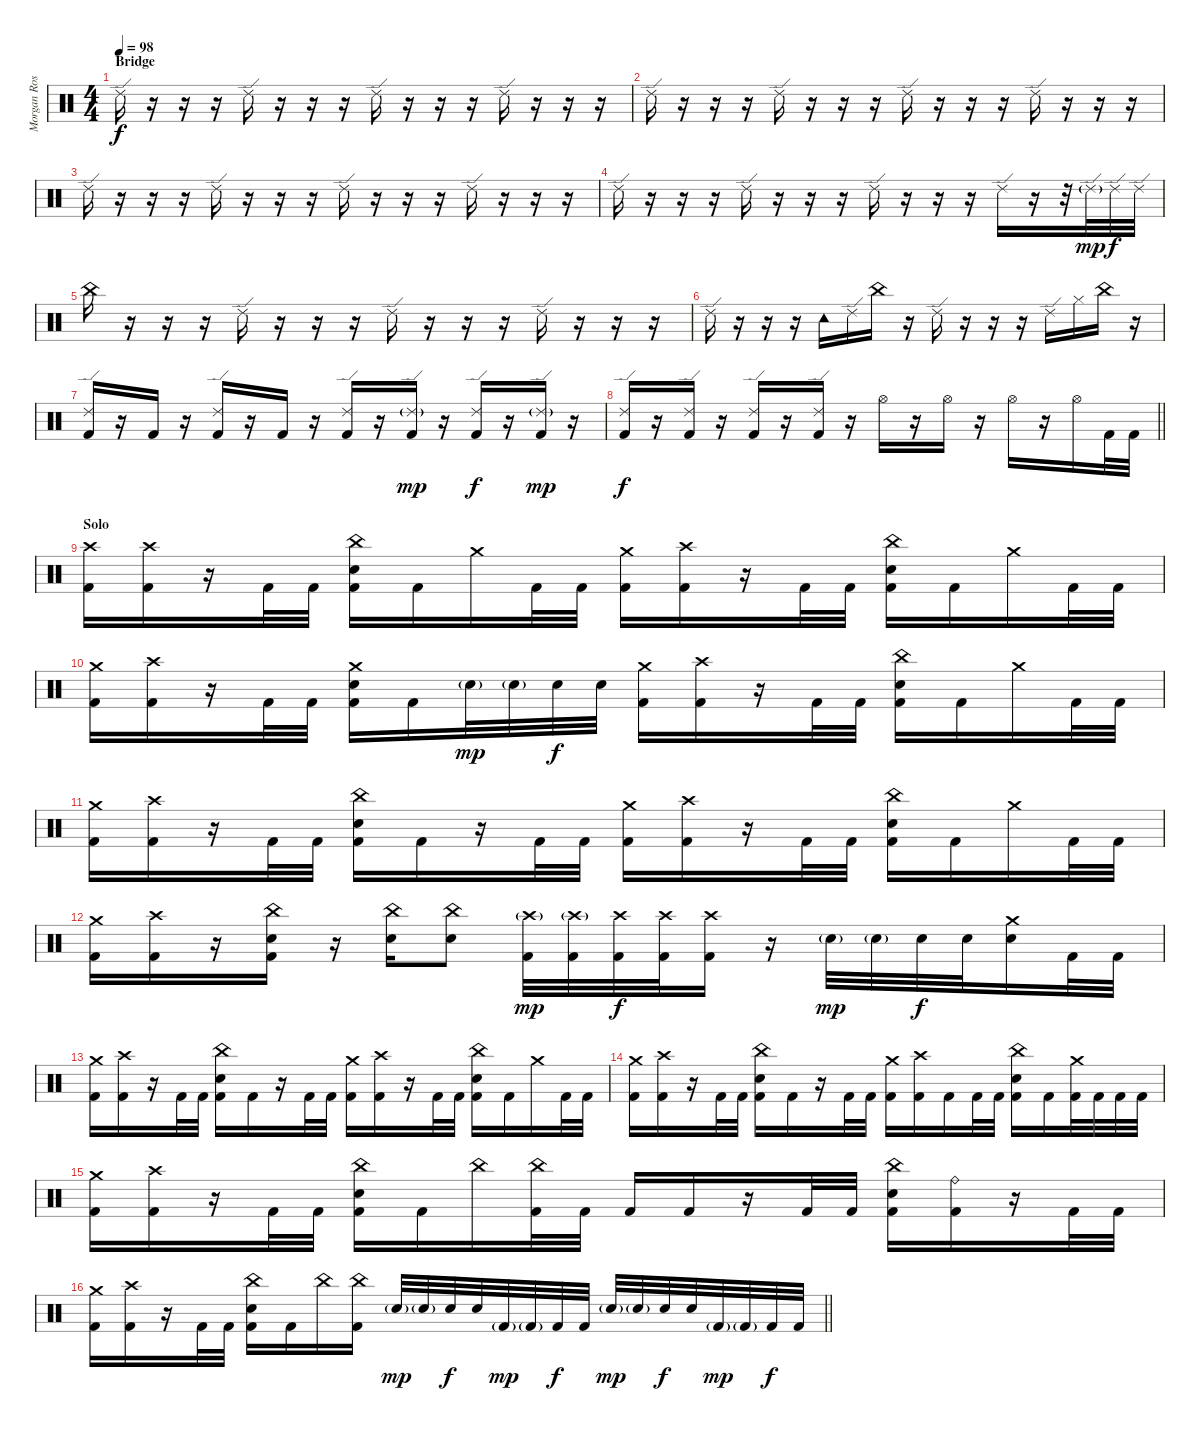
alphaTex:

\track ("Morgan Rose" "Morgan Ros") {instrument percussion}
\staff {score}
\articulation defaults
\ts (4 4)
\section ("" "Bridge")
\tempo 98
\clef neutral
\ks c "Ride (edge) 2".16{dy f}
r.16 r.16 r.16 "Ride (edge) 2".16 r.16 r.16 r.16 "Ride (edge) 2".16 r.16 r.16 r.16 "Ride (edge) 2".16 r.16 r.16 r.16 |
"Ride (edge) 2".16 r.16 r.16 r.16 "Ride (edge) 2".16 r.16 r.16 r.16 "Ride (edge) 2".16 r.16 r.16 r.16 "Ride (edge) 2".16 r.16 r.16 r.16 |
"Ride (edge) 2".16 r.16 r.16 r.16 "Ride (edge) 2".16 r.16 r.16 r.16 "Ride (edge) 2".16 r.16 r.16 r.16 "Ride (edge) 2".16 r.16 r.16 r.16 |
"Ride (edge) 2".16 r.16 r.16 r.16 "Ride (edge) 2".16 r.16 r.16 r.16 "Ride (edge) 2".16 r.16 r.16 r.16 "Ride (edge) 2".16 r.16 r.32 "Ride (edge) 2"{g}.32{dy mp} "Ride (edge) 2".32{dy f} "Ride (edge) 2".32 |
"China (hit)".16 r.16 r.16 r.16 "Ride (edge) 2".16 r.16 r.16 r.16 "Ride (edge) 2".16 r.16 r.16 r.16 "Ride (edge) 2".16 r.16 r.16 r.16 |
"Ride (edge) 2".16 r.16 r.16 r.16 "Tambourine (hit)".16 "Ride (edge) 2".16 "China (hit)".16 r.16 "Ride (edge) 2".16 r.16 r.16 r.16 "Ride (edge) 2".16 "Hi-Hat (closed)".16 "China (hit)".16 r.16 |
("Ride (edge) 2" "Kick (hit) 2").16 r.16 "Kick (hit) 2".16 r.16 ("Ride (edge) 2" "Kick (hit) 2").16 r.16 "Kick (hit) 2".16 r.16 ("Ride (edge) 2" "Kick (hit) 2").16 r.16 ("Ride (edge) 2"{g} "Kick (hit) 2").16{dy mp} r.16 ("Ride (edge) 2" "Kick (hit) 2").16{dy f} r.16 ("Ride (edge) 2"{g} "Kick (hit) 2").16{dy mp} r.16 |
\barLineRight lightlight
("Ride (edge) 2" "Kick (hit) 2").16{dy f} r.16 ("Ride (edge) 2" "Kick (hit) 2").16 r.16 ("Ride (edge) 2" "Kick (hit) 2").16 r.16 ("Ride (edge) 2" "Kick (hit) 2").16 r.16 "Hi-Hat (open)".16 r.16 "Hi-Hat (open)".16 r.16 "Hi-Hat (open)".16 r.16 "Hi-Hat (open)".16 "Kick (hit) 2".32 "Kick (hit) 2".32 |
\section ("" "Solo")
("Crash high (hit)" "Kick (hit) 2").16 ("Crash high (hit)" "Kick (hit) 2").16 r.16 "Kick (hit) 2".32 "Kick (hit) 2".32 ("China (hit)" "Snare (hit) 2" "Kick (hit) 2").16 "Kick (hit) 2".16 "Crash medium (hit)".16 "Kick (hit) 2".32 "Kick (hit) 2".32 ("Crash medium (hit)" "Kick (hit) 2").16 ("Crash high (hit)" "Kick (hit) 2").16 r.16 "Kick (hit) 2".32 "Kick (hit) 2".32 ("China (hit)" "Snare (hit) 2" "Kick (hit) 2").16 "Kick (hit) 2".16 "Crash medium (hit)".16 "Kick (hit) 2".32 "Kick (hit) 2".32 |
("Crash medium (hit)" "Kick (hit) 2").16 ("Crash high (hit)" "Kick (hit) 2").16 r.16 "Kick (hit) 2".32 "Kick (hit) 2".32 ("Crash medium (hit)" "Snare (hit) 2" "Kick (hit) 2").16 "Kick (hit) 2".16 "Snare (hit) 2"{g}.32{dy mp} "Snare (hit) 2"{g}.32 "Snare (hit) 2".32{dy f} "Snare (hit) 2".32 ("Crash medium (hit)" "Kick (hit) 2").16 ("Crash high (hit)" "Kick (hit) 2").16 r.16 "Kick (hit) 2".32 "Kick (hit) 2".32 ("China (hit)" "Snare (hit) 2" "Kick (hit) 2").16 "Kick (hit) 2".16 "Crash medium (hit)".16 "Kick (hit) 2".32 "Kick (hit) 2".32 |
("Crash medium (hit)" "Kick (hit) 2").16 ("Crash high (hit)" "Kick (hit) 2").16 r.16 "Kick (hit) 2".32 "Kick (hit) 2".32 ("China (hit)" "Snare (hit) 2" "Kick (hit) 2").16 "Kick (hit) 2".16 r.16 "Kick (hit) 2".32 "Kick (hit) 2".32 ("Crash medium (hit)" "Kick (hit) 2").16 ("Crash high (hit)" "Kick (hit) 2").16 r.16 "Kick (hit) 2".32 "Kick (hit) 2".32 ("China (hit)" "Snare (hit) 2" "Kick (hit) 2").16 "Kick (hit) 2".16 "Crash medium (hit)".16 "Kick (hit) 2".32 "Kick (hit) 2".32 |
("Crash medium (hit)" "Kick (hit) 2").16 ("Crash high (hit)" "Kick (hit) 2").16 r.16 ("China (hit)" "Snare (hit) 2" "Kick (hit) 2").16 r.16 ("China (hit)" "Snare (hit) 2").16 ("China (hit)" "Snare (hit) 2").8 ("Crash high (hit)"{g} "Kick (hit) 2").32{dy mp} ("Crash high (hit)"{g} "Kick (hit) 2").32 ("Crash high (hit)" "Kick (hit) 2").32{dy f} ("Crash high (hit)" "Kick (hit) 2").32 ("Crash high (hit)" "Kick (hit) 2").16 r.16 "Snare (hit) 2"{g}.32{dy mp} "Snare (hit) 2"{g}.32 "Snare (hit) 2".32{dy f} "Snare (hit) 2".32 ("Crash medium (hit)" "Snare (hit) 2").16 "Kick (hit) 2".32 "Kick (hit) 2".32 |
("Crash medium (hit)" "Kick (hit) 2").16 ("Crash high (hit)" "Kick (hit) 2").16 r.16 "Kick (hit) 2".32 "Kick (hit) 2".32 ("China (hit)" "Snare (hit) 2" "Kick (hit) 2").16 "Kick (hit) 2".16 r.16 "Kick (hit) 2".32 "Kick (hit) 2".32 ("Crash medium (hit)" "Kick (hit) 2").16 ("Crash high (hit)" "Kick (hit) 2").16 r.16 "Kick (hit) 2".32 "Kick (hit) 2".32 ("China (hit)" "Snare (hit) 2" "Kick (hit) 2").16 "Kick (hit) 2".16 "Crash medium (hit)".16 "Kick (hit) 2".32 "Kick (hit) 2".32 |
("Crash medium (hit)" "Kick (hit) 2").16 ("Crash high (hit)" "Kick (hit) 2").16 r.16 "Kick (hit) 2".32 "Kick (hit) 2".32 ("China (hit)" "Snare (hit) 2" "Kick (hit) 2").16 "Kick (hit) 2".16 r.16 "Kick (hit) 2".32 "Kick (hit) 2".32 ("Crash medium (hit)" "Kick (hit) 2").16 ("Crash high (hit)" "Kick (hit) 2").16 "Kick (hit) 2".16 "Kick (hit) 2".32 "Kick (hit) 2".32 ("China (hit)" "Snare (hit) 2" "Kick (hit) 2").16 "Kick (hit) 2".16 ("Crash medium (hit)" "Kick (hit) 2").32 "Kick (hit) 2".32 "Kick (hit) 2".32 "Kick (hit) 2".32 |
("Crash medium (hit)" "Kick (hit) 2").16 ("Crash high (hit)" "Kick (hit) 2").16 r.16 "Kick (hit) 2".32 "Kick (hit) 2".32 ("China (hit)" "Snare (hit) 2" "Kick (hit) 2").16 "Kick (hit) 2".16 "China (hit)".16 ("China (hit)" "Kick (hit) 2").32 "Kick (hit) 2".32 "Kick (hit) 2".16 "Kick (hit) 2".16 r.16 "Kick (hit) 2".32 "Kick (hit) 2".32 ("China (hit)" "Snare (hit) 2" "Kick (hit) 2").16 ("Ride (bell)" "Kick (hit) 2").16 r.16 "Kick (hit) 2".32 "Kick (hit) 2".32 |
\barLineRight lightlight
("Crash medium (hit)" "Kick (hit) 2").16 ("Crash high (hit)" "Kick (hit) 2").16 r.16 "Kick (hit) 2".32 "Kick (hit) 2".32 ("China (hit)" "Snare (hit) 2" "Kick (hit) 2").16 "Kick (hit) 2".16 "China (hit)".16 ("China (hit)" "Kick (hit) 2").16 "Snare (hit) 2"{g}.32{dy mp} "Snare (hit) 2"{g}.32 "Snare (hit) 2".32{dy f} "Snare (hit) 2".32 "Kick (hit) 2"{g}.32{dy mp} "Kick (hit) 2"{g}.32 "Kick (hit) 2".32{dy f} "Kick (hit) 2".32 "Snare (hit) 2"{g}.32{dy mp} "Snare (hit) 2"{g}.32 "Snare (hit) 2".32{dy f} "Snare (hit) 2".32 "Kick (hit) 2"{g}.32{dy mp} "Kick (hit) 2"{g}.32 "Kick (hit) 2".32{dy f} "Kick (hit) 2".32
